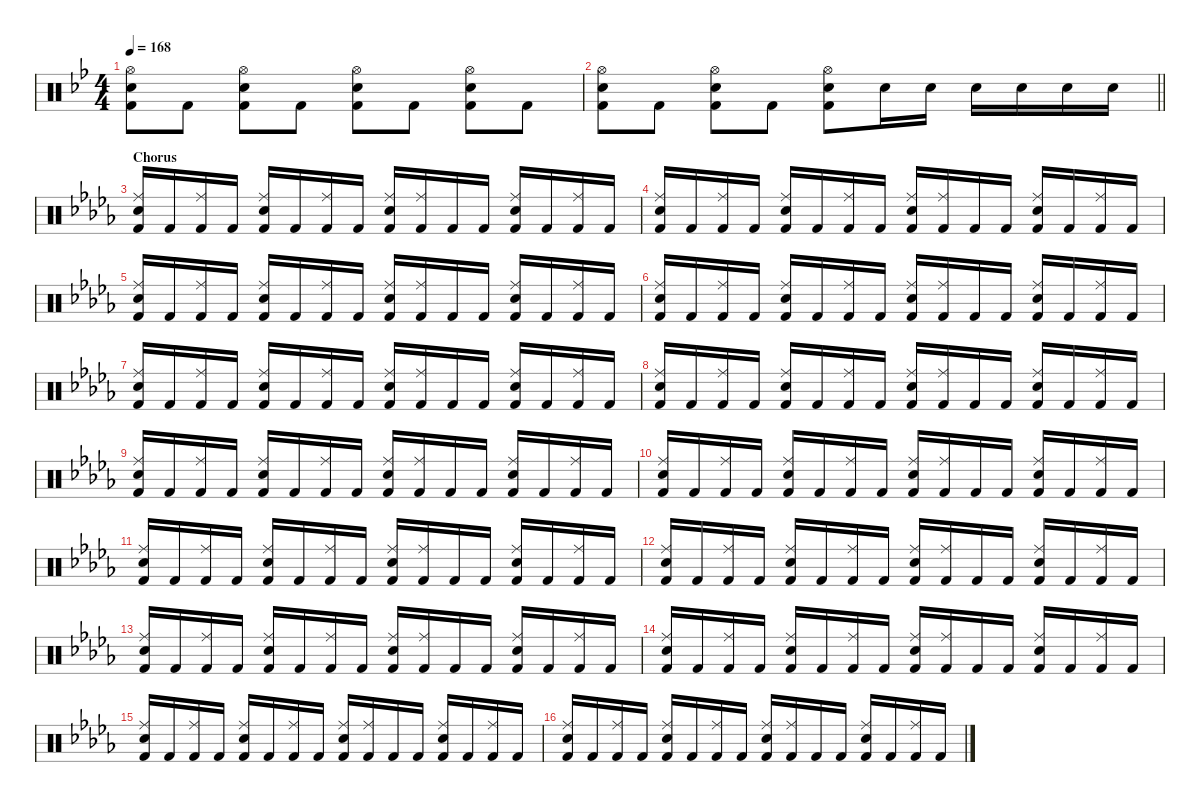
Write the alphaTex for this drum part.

\defaultSystemsLayout 4
\hideDynamics
\bracketExtendMode nobrackets
\singleTrackTrackNamePolicy hidden
\multiTrackTrackNamePolicy hidden
\firstSystemTrackNameMode fullname
\firstSystemTrackNameOrientation horizontal
\otherSystemsTrackNameOrientation horizontal
\track ("Percussion" "drm.") {instrument percussion}
\staff {score}
\articulation defaults
\ts (4 4)
\tempo 168
\clef neutral
\ks bb
("Hi-Hat (open)"{acc forcenatural} "Snare (hit) 2"{acc forcenatural} "Kick (hit) 2"{acc forcenatural}).8{dy f beam Down} "Kick (hit) 2"{acc forcenatural}.8{beam Down} ("Hi-Hat (open)"{acc forcenatural} "Snare (hit) 2"{acc forcenatural} "Kick (hit) 2"{acc forcenatural}).8{beam Down} "Kick (hit) 2"{acc forcenatural}.8{beam Down} ("Hi-Hat (open)"{acc forcenatural} "Snare (hit) 2"{acc forcenatural} "Kick (hit) 2"{acc forcenatural}).8{beam Down} "Kick (hit) 2"{acc forcenatural}.8{beam Down} ("Hi-Hat (open)"{acc forcenatural} "Snare (hit) 2"{acc forcenatural} "Kick (hit) 2"{acc forcenatural}).8{beam Down} "Kick (hit) 2"{acc forcenatural}.8{beam Down} |
\barLineRight lightlight
("Hi-Hat (open)"{acc forcenatural} "Snare (hit) 2"{acc forcenatural} "Kick (hit) 2"{acc forcenatural}).8{beam Down} "Kick (hit) 2"{acc forcenatural}.8{beam Down} ("Hi-Hat (open)"{acc forcenatural} "Snare (hit) 2"{acc forcenatural} "Kick (hit) 2"{acc forcenatural}).8{beam Down} "Kick (hit) 2"{acc forcenatural}.8{beam Down} ("Hi-Hat (open)"{acc forcenatural} "Snare (hit) 2"{acc forcenatural} "Kick (hit) 2"{acc forcenatural}).8{beam Down} "Snare (hit) 2"{acc forcenatural}.16{beam Down} "Snare (hit) 2"{acc forcenatural}.16{beam Down} "Snare (hit) 2"{acc forcenatural}.16{beam Down} "Snare (hit) 2"{acc forcenatural}.16{beam Down} "Snare (hit) 2"{acc forcenatural}.16{beam Down} "Snare (hit) 2"{acc forcenatural}.16{beam Down} |
\section ("" "Chorus")
\ks db
("Ride (middle)"{acc forcenatural} "Snare (hit) 2"{acc forcenatural} "Kick (hit) 2"{acc forcenatural}).16{beam Up} "Kick (hit) 2"{acc forcenatural}.16{beam Up} ("Ride (middle)"{acc forcenatural} "Kick (hit) 2"{acc forcenatural}).16{beam Up} "Kick (hit) 2"{acc forcenatural}.16{beam Up} ("Ride (middle)"{acc forcenatural} "Snare (hit) 2"{acc forcenatural} "Kick (hit) 2"{acc forcenatural}).16{beam Up} "Kick (hit) 2"{acc forcenatural}.16{beam Up} ("Ride (middle)"{acc forcenatural} "Kick (hit) 2"{acc forcenatural}).16{beam Up} "Kick (hit) 2"{acc forcenatural}.16{beam Up} ("Ride (middle)"{acc forcenatural} "Snare (hit) 2"{acc forcenatural} "Kick (hit) 2"{acc forcenatural}).16{beam Up} ("Ride (middle)"{acc forcenatural} "Kick (hit) 2"{acc forcenatural}).16{beam Up} "Kick (hit) 2"{acc forcenatural}.16{beam Up} "Kick (hit) 2"{acc forcenatural}.16{beam Up} ("Ride (middle)"{acc forcenatural} "Snare (hit) 2"{acc forcenatural} "Kick (hit) 2"{acc forcenatural}).16{beam Up} "Kick (hit) 2"{acc forcenatural}.16{beam Up} ("Ride (middle)"{acc forcenatural} "Kick (hit) 2"{acc forcenatural}).16{beam Up} "Kick (hit) 2"{acc forcenatural}.16{beam Up} |
("Ride (middle)"{acc forcenatural} "Snare (hit) 2"{acc forcenatural} "Kick (hit) 2"{acc forcenatural}).16{beam Up} "Kick (hit) 2"{acc forcenatural}.16{beam Up} ("Ride (middle)"{acc forcenatural} "Kick (hit) 2"{acc forcenatural}).16{beam Up} "Kick (hit) 2"{acc forcenatural}.16{beam Up} ("Ride (middle)"{acc forcenatural} "Snare (hit) 2"{acc forcenatural} "Kick (hit) 2"{acc forcenatural}).16{beam Up} "Kick (hit) 2"{acc forcenatural}.16{beam Up} ("Ride (middle)"{acc forcenatural} "Kick (hit) 2"{acc forcenatural}).16{beam Up} "Kick (hit) 2"{acc forcenatural}.16{beam Up} ("Ride (middle)"{acc forcenatural} "Snare (hit) 2"{acc forcenatural} "Kick (hit) 2"{acc forcenatural}).16{beam Up} ("Ride (middle)"{acc forcenatural} "Kick (hit) 2"{acc forcenatural}).16{beam Up} "Kick (hit) 2"{acc forcenatural}.16{beam Up} "Kick (hit) 2"{acc forcenatural}.16{beam Up} ("Ride (middle)"{acc forcenatural} "Snare (hit) 2"{acc forcenatural} "Kick (hit) 2"{acc forcenatural}).16{beam Up} "Kick (hit) 2"{acc forcenatural}.16{beam Up} ("Ride (middle)"{acc forcenatural} "Kick (hit) 2"{acc forcenatural}).16{beam Up} "Kick (hit) 2"{acc forcenatural}.16{beam Up} |
("Ride (middle)"{acc forcenatural} "Snare (hit) 2"{acc forcenatural} "Kick (hit) 2"{acc forcenatural}).16{beam Up} "Kick (hit) 2"{acc forcenatural}.16{beam Up} ("Ride (middle)"{acc forcenatural} "Kick (hit) 2"{acc forcenatural}).16{beam Up} "Kick (hit) 2"{acc forcenatural}.16{beam Up} ("Ride (middle)"{acc forcenatural} "Snare (hit) 2"{acc forcenatural} "Kick (hit) 2"{acc forcenatural}).16{beam Up} "Kick (hit) 2"{acc forcenatural}.16{beam Up} ("Ride (middle)"{acc forcenatural} "Kick (hit) 2"{acc forcenatural}).16{beam Up} "Kick (hit) 2"{acc forcenatural}.16{beam Up} ("Ride (middle)"{acc forcenatural} "Snare (hit) 2"{acc forcenatural} "Kick (hit) 2"{acc forcenatural}).16{beam Up} ("Ride (middle)"{acc forcenatural} "Kick (hit) 2"{acc forcenatural}).16{beam Up} "Kick (hit) 2"{acc forcenatural}.16{beam Up} "Kick (hit) 2"{acc forcenatural}.16{beam Up} ("Ride (middle)"{acc forcenatural} "Snare (hit) 2"{acc forcenatural} "Kick (hit) 2"{acc forcenatural}).16{beam Up} "Kick (hit) 2"{acc forcenatural}.16{beam Up} ("Ride (middle)"{acc forcenatural} "Kick (hit) 2"{acc forcenatural}).16{beam Up} "Kick (hit) 2"{acc forcenatural}.16{beam Up} |
("Ride (middle)"{acc forcenatural} "Snare (hit) 2"{acc forcenatural} "Kick (hit) 2"{acc forcenatural}).16{beam Up} "Kick (hit) 2"{acc forcenatural}.16{beam Up} ("Ride (middle)"{acc forcenatural} "Kick (hit) 2"{acc forcenatural}).16{beam Up} "Kick (hit) 2"{acc forcenatural}.16{beam Up} ("Ride (middle)"{acc forcenatural} "Snare (hit) 2"{acc forcenatural} "Kick (hit) 2"{acc forcenatural}).16{beam Up} "Kick (hit) 2"{acc forcenatural}.16{beam Up} ("Ride (middle)"{acc forcenatural} "Kick (hit) 2"{acc forcenatural}).16{beam Up} "Kick (hit) 2"{acc forcenatural}.16{beam Up} ("Ride (middle)"{acc forcenatural} "Snare (hit) 2"{acc forcenatural} "Kick (hit) 2"{acc forcenatural}).16{beam Up} ("Ride (middle)"{acc forcenatural} "Kick (hit) 2"{acc forcenatural}).16{beam Up} "Kick (hit) 2"{acc forcenatural}.16{beam Up} "Kick (hit) 2"{acc forcenatural}.16{beam Up} ("Ride (middle)"{acc forcenatural} "Snare (hit) 2"{acc forcenatural} "Kick (hit) 2"{acc forcenatural}).16{beam Up} "Kick (hit) 2"{acc forcenatural}.16{beam Up} ("Ride (middle)"{acc forcenatural} "Kick (hit) 2"{acc forcenatural}).16{beam Up} "Kick (hit) 2"{acc forcenatural}.16{beam Up} |
("Ride (middle)"{acc forcenatural} "Snare (hit) 2"{acc forcenatural} "Kick (hit) 2"{acc forcenatural}).16{beam Up} "Kick (hit) 2"{acc forcenatural}.16{beam Up} ("Ride (middle)"{acc forcenatural} "Kick (hit) 2"{acc forcenatural}).16{beam Up} "Kick (hit) 2"{acc forcenatural}.16{beam Up} ("Ride (middle)"{acc forcenatural} "Snare (hit) 2"{acc forcenatural} "Kick (hit) 2"{acc forcenatural}).16{beam Up} "Kick (hit) 2"{acc forcenatural}.16{beam Up} ("Ride (middle)"{acc forcenatural} "Kick (hit) 2"{acc forcenatural}).16{beam Up} "Kick (hit) 2"{acc forcenatural}.16{beam Up} ("Ride (middle)"{acc forcenatural} "Snare (hit) 2"{acc forcenatural} "Kick (hit) 2"{acc forcenatural}).16{beam Up} ("Ride (middle)"{acc forcenatural} "Kick (hit) 2"{acc forcenatural}).16{beam Up} "Kick (hit) 2"{acc forcenatural}.16{beam Up} "Kick (hit) 2"{acc forcenatural}.16{beam Up} ("Ride (middle)"{acc forcenatural} "Snare (hit) 2"{acc forcenatural} "Kick (hit) 2"{acc forcenatural}).16{beam Up} "Kick (hit) 2"{acc forcenatural}.16{beam Up} ("Ride (middle)"{acc forcenatural} "Kick (hit) 2"{acc forcenatural}).16{beam Up} "Kick (hit) 2"{acc forcenatural}.16{beam Up} |
("Ride (middle)"{acc forcenatural} "Snare (hit) 2"{acc forcenatural} "Kick (hit) 2"{acc forcenatural}).16{beam Up} "Kick (hit) 2"{acc forcenatural}.16{beam Up} ("Ride (middle)"{acc forcenatural} "Kick (hit) 2"{acc forcenatural}).16{beam Up} "Kick (hit) 2"{acc forcenatural}.16{beam Up} ("Ride (middle)"{acc forcenatural} "Snare (hit) 2"{acc forcenatural} "Kick (hit) 2"{acc forcenatural}).16{beam Up} "Kick (hit) 2"{acc forcenatural}.16{beam Up} ("Ride (middle)"{acc forcenatural} "Kick (hit) 2"{acc forcenatural}).16{beam Up} "Kick (hit) 2"{acc forcenatural}.16{beam Up} ("Ride (middle)"{acc forcenatural} "Snare (hit) 2"{acc forcenatural} "Kick (hit) 2"{acc forcenatural}).16{beam Up} ("Ride (middle)"{acc forcenatural} "Kick (hit) 2"{acc forcenatural}).16{beam Up} "Kick (hit) 2"{acc forcenatural}.16{beam Up} "Kick (hit) 2"{acc forcenatural}.16{beam Up} ("Ride (middle)"{acc forcenatural} "Snare (hit) 2"{acc forcenatural} "Kick (hit) 2"{acc forcenatural}).16{beam Up} "Kick (hit) 2"{acc forcenatural}.16{beam Up} ("Ride (middle)"{acc forcenatural} "Kick (hit) 2"{acc forcenatural}).16{beam Up} "Kick (hit) 2"{acc forcenatural}.16{beam Up} |
("Ride (middle)"{acc forcenatural} "Snare (hit) 2"{acc forcenatural} "Kick (hit) 2"{acc forcenatural}).16{beam Up} "Kick (hit) 2"{acc forcenatural}.16{beam Up} ("Ride (middle)"{acc forcenatural} "Kick (hit) 2"{acc forcenatural}).16{beam Up} "Kick (hit) 2"{acc forcenatural}.16{beam Up} ("Ride (middle)"{acc forcenatural} "Snare (hit) 2"{acc forcenatural} "Kick (hit) 2"{acc forcenatural}).16{beam Up} "Kick (hit) 2"{acc forcenatural}.16{beam Up} ("Ride (middle)"{acc forcenatural} "Kick (hit) 2"{acc forcenatural}).16{beam Up} "Kick (hit) 2"{acc forcenatural}.16{beam Up} ("Ride (middle)"{acc forcenatural} "Snare (hit) 2"{acc forcenatural} "Kick (hit) 2"{acc forcenatural}).16{beam Up} ("Ride (middle)"{acc forcenatural} "Kick (hit) 2"{acc forcenatural}).16{beam Up} "Kick (hit) 2"{acc forcenatural}.16{beam Up} "Kick (hit) 2"{acc forcenatural}.16{beam Up} ("Ride (middle)"{acc forcenatural} "Snare (hit) 2"{acc forcenatural} "Kick (hit) 2"{acc forcenatural}).16{beam Up} "Kick (hit) 2"{acc forcenatural}.16{beam Up} ("Ride (middle)"{acc forcenatural} "Kick (hit) 2"{acc forcenatural}).16{beam Up} "Kick (hit) 2"{acc forcenatural}.16{beam Up} |
("Ride (middle)"{acc forcenatural} "Snare (hit) 2"{acc forcenatural} "Kick (hit) 2"{acc forcenatural}).16{beam Up} "Kick (hit) 2"{acc forcenatural}.16{beam Up} ("Ride (middle)"{acc forcenatural} "Kick (hit) 2"{acc forcenatural}).16{beam Up} "Kick (hit) 2"{acc forcenatural}.16{beam Up} ("Ride (middle)"{acc forcenatural} "Snare (hit) 2"{acc forcenatural} "Kick (hit) 2"{acc forcenatural}).16{beam Up} "Kick (hit) 2"{acc forcenatural}.16{beam Up} ("Ride (middle)"{acc forcenatural} "Kick (hit) 2"{acc forcenatural}).16{beam Up} "Kick (hit) 2"{acc forcenatural}.16{beam Up} ("Ride (middle)"{acc forcenatural} "Snare (hit) 2"{acc forcenatural} "Kick (hit) 2"{acc forcenatural}).16{beam Up} ("Ride (middle)"{acc forcenatural} "Kick (hit) 2"{acc forcenatural}).16{beam Up} "Kick (hit) 2"{acc forcenatural}.16{beam Up} "Kick (hit) 2"{acc forcenatural}.16{beam Up} ("Ride (middle)"{acc forcenatural} "Snare (hit) 2"{acc forcenatural} "Kick (hit) 2"{acc forcenatural}).16{beam Up} "Kick (hit) 2"{acc forcenatural}.16{beam Up} ("Ride (middle)"{acc forcenatural} "Kick (hit) 2"{acc forcenatural}).16{beam Up} "Kick (hit) 2"{acc forcenatural}.16{beam Up} |
("Ride (middle)"{acc forcenatural} "Snare (hit) 2"{acc forcenatural} "Kick (hit) 2"{acc forcenatural}).16{beam Up} "Kick (hit) 2"{acc forcenatural}.16{beam Up} ("Ride (middle)"{acc forcenatural} "Kick (hit) 2"{acc forcenatural}).16{beam Up} "Kick (hit) 2"{acc forcenatural}.16{beam Up} ("Ride (middle)"{acc forcenatural} "Snare (hit) 2"{acc forcenatural} "Kick (hit) 2"{acc forcenatural}).16{beam Up} "Kick (hit) 2"{acc forcenatural}.16{beam Up} ("Ride (middle)"{acc forcenatural} "Kick (hit) 2"{acc forcenatural}).16{beam Up} "Kick (hit) 2"{acc forcenatural}.16{beam Up} ("Ride (middle)"{acc forcenatural} "Snare (hit) 2"{acc forcenatural} "Kick (hit) 2"{acc forcenatural}).16{beam Up} ("Ride (middle)"{acc forcenatural} "Kick (hit) 2"{acc forcenatural}).16{beam Up} "Kick (hit) 2"{acc forcenatural}.16{beam Up} "Kick (hit) 2"{acc forcenatural}.16{beam Up} ("Ride (middle)"{acc forcenatural} "Snare (hit) 2"{acc forcenatural} "Kick (hit) 2"{acc forcenatural}).16{beam Up} "Kick (hit) 2"{acc forcenatural}.16{beam Up} ("Ride (middle)"{acc forcenatural} "Kick (hit) 2"{acc forcenatural}).16{beam Up} "Kick (hit) 2"{acc forcenatural}.16{beam Up} |
("Ride (middle)"{acc forcenatural} "Snare (hit) 2"{acc forcenatural} "Kick (hit) 2"{acc forcenatural}).16{beam Up} "Kick (hit) 2"{acc forcenatural}.16{beam Up} ("Ride (middle)"{acc forcenatural} "Kick (hit) 2"{acc forcenatural}).16{beam Up} "Kick (hit) 2"{acc forcenatural}.16{beam Up} ("Ride (middle)"{acc forcenatural} "Snare (hit) 2"{acc forcenatural} "Kick (hit) 2"{acc forcenatural}).16{beam Up} "Kick (hit) 2"{acc forcenatural}.16{beam Up} ("Ride (middle)"{acc forcenatural} "Kick (hit) 2"{acc forcenatural}).16{beam Up} "Kick (hit) 2"{acc forcenatural}.16{beam Up} ("Ride (middle)"{acc forcenatural} "Snare (hit) 2"{acc forcenatural} "Kick (hit) 2"{acc forcenatural}).16{beam Up} ("Ride (middle)"{acc forcenatural} "Kick (hit) 2"{acc forcenatural}).16{beam Up} "Kick (hit) 2"{acc forcenatural}.16{beam Up} "Kick (hit) 2"{acc forcenatural}.16{beam Up} ("Ride (middle)"{acc forcenatural} "Snare (hit) 2"{acc forcenatural} "Kick (hit) 2"{acc forcenatural}).16{beam Up} "Kick (hit) 2"{acc forcenatural}.16{beam Up} ("Ride (middle)"{acc forcenatural} "Kick (hit) 2"{acc forcenatural}).16{beam Up} "Kick (hit) 2"{acc forcenatural}.16{beam Up} |
("Ride (middle)"{acc forcenatural} "Snare (hit) 2"{acc forcenatural} "Kick (hit) 2"{acc forcenatural}).16{beam Up} "Kick (hit) 2"{acc forcenatural}.16{beam Up} ("Ride (middle)"{acc forcenatural} "Kick (hit) 2"{acc forcenatural}).16{beam Up} "Kick (hit) 2"{acc forcenatural}.16{beam Up} ("Ride (middle)"{acc forcenatural} "Snare (hit) 2"{acc forcenatural} "Kick (hit) 2"{acc forcenatural}).16{beam Up} "Kick (hit) 2"{acc forcenatural}.16{beam Up} ("Ride (middle)"{acc forcenatural} "Kick (hit) 2"{acc forcenatural}).16{beam Up} "Kick (hit) 2"{acc forcenatural}.16{beam Up} ("Ride (middle)"{acc forcenatural} "Snare (hit) 2"{acc forcenatural} "Kick (hit) 2"{acc forcenatural}).16{beam Up} ("Ride (middle)"{acc forcenatural} "Kick (hit) 2"{acc forcenatural}).16{beam Up} "Kick (hit) 2"{acc forcenatural}.16{beam Up} "Kick (hit) 2"{acc forcenatural}.16{beam Up} ("Ride (middle)"{acc forcenatural} "Snare (hit) 2"{acc forcenatural} "Kick (hit) 2"{acc forcenatural}).16{beam Up} "Kick (hit) 2"{acc forcenatural}.16{beam Up} ("Ride (middle)"{acc forcenatural} "Kick (hit) 2"{acc forcenatural}).16{beam Up} "Kick (hit) 2"{acc forcenatural}.16{beam Up} |
("Ride (middle)"{acc forcenatural} "Snare (hit) 2"{acc forcenatural} "Kick (hit) 2"{acc forcenatural}).16{beam Up} "Kick (hit) 2"{acc forcenatural}.16{beam Up} ("Ride (middle)"{acc forcenatural} "Kick (hit) 2"{acc forcenatural}).16{beam Up} "Kick (hit) 2"{acc forcenatural}.16{beam Up} ("Ride (middle)"{acc forcenatural} "Snare (hit) 2"{acc forcenatural} "Kick (hit) 2"{acc forcenatural}).16{beam Up} "Kick (hit) 2"{acc forcenatural}.16{beam Up} ("Ride (middle)"{acc forcenatural} "Kick (hit) 2"{acc forcenatural}).16{beam Up} "Kick (hit) 2"{acc forcenatural}.16{beam Up} ("Ride (middle)"{acc forcenatural} "Snare (hit) 2"{acc forcenatural} "Kick (hit) 2"{acc forcenatural}).16{beam Up} ("Ride (middle)"{acc forcenatural} "Kick (hit) 2"{acc forcenatural}).16{beam Up} "Kick (hit) 2"{acc forcenatural}.16{beam Up} "Kick (hit) 2"{acc forcenatural}.16{beam Up} ("Ride (middle)"{acc forcenatural} "Snare (hit) 2"{acc forcenatural} "Kick (hit) 2"{acc forcenatural}).16{beam Up} "Kick (hit) 2"{acc forcenatural}.16{beam Up} ("Ride (middle)"{acc forcenatural} "Kick (hit) 2"{acc forcenatural}).16{beam Up} "Kick (hit) 2"{acc forcenatural}.16{beam Up} |
("Ride (middle)"{acc forcenatural} "Snare (hit) 2"{acc forcenatural} "Kick (hit) 2"{acc forcenatural}).16{beam Up} "Kick (hit) 2"{acc forcenatural}.16{beam Up} ("Ride (middle)"{acc forcenatural} "Kick (hit) 2"{acc forcenatural}).16{beam Up} "Kick (hit) 2"{acc forcenatural}.16{beam Up} ("Ride (middle)"{acc forcenatural} "Snare (hit) 2"{acc forcenatural} "Kick (hit) 2"{acc forcenatural}).16{beam Up} "Kick (hit) 2"{acc forcenatural}.16{beam Up} ("Ride (middle)"{acc forcenatural} "Kick (hit) 2"{acc forcenatural}).16{beam Up} "Kick (hit) 2"{acc forcenatural}.16{beam Up} ("Ride (middle)"{acc forcenatural} "Snare (hit) 2"{acc forcenatural} "Kick (hit) 2"{acc forcenatural}).16{beam Up} ("Ride (middle)"{acc forcenatural} "Kick (hit) 2"{acc forcenatural}).16{beam Up} "Kick (hit) 2"{acc forcenatural}.16{beam Up} "Kick (hit) 2"{acc forcenatural}.16{beam Up} ("Ride (middle)"{acc forcenatural} "Snare (hit) 2"{acc forcenatural} "Kick (hit) 2"{acc forcenatural}).16{beam Up} "Kick (hit) 2"{acc forcenatural}.16{beam Up} ("Ride (middle)"{acc forcenatural} "Kick (hit) 2"{acc forcenatural}).16{beam Up} "Kick (hit) 2"{acc forcenatural}.16{beam Up} |
("Ride (middle)"{acc forcenatural} "Snare (hit) 2"{acc forcenatural} "Kick (hit) 2"{acc forcenatural}).16{beam Up} "Kick (hit) 2"{acc forcenatural}.16{beam Up} ("Ride (middle)"{acc forcenatural} "Kick (hit) 2"{acc forcenatural}).16{beam Up} "Kick (hit) 2"{acc forcenatural}.16{beam Up} ("Ride (middle)"{acc forcenatural} "Snare (hit) 2"{acc forcenatural} "Kick (hit) 2"{acc forcenatural}).16{beam Up} "Kick (hit) 2"{acc forcenatural}.16{beam Up} ("Ride (middle)"{acc forcenatural} "Kick (hit) 2"{acc forcenatural}).16{beam Up} "Kick (hit) 2"{acc forcenatural}.16{beam Up} ("Ride (middle)"{acc forcenatural} "Snare (hit) 2"{acc forcenatural} "Kick (hit) 2"{acc forcenatural}).16{beam Up} ("Ride (middle)"{acc forcenatural} "Kick (hit) 2"{acc forcenatural}).16{beam Up} "Kick (hit) 2"{acc forcenatural}.16{beam Up} "Kick (hit) 2"{acc forcenatural}.16{beam Up} ("Ride (middle)"{acc forcenatural} "Snare (hit) 2"{acc forcenatural} "Kick (hit) 2"{acc forcenatural}).16{beam Up} "Kick (hit) 2"{acc forcenatural}.16{beam Up} ("Ride (middle)"{acc forcenatural} "Kick (hit) 2"{acc forcenatural}).16{beam Up} "Kick (hit) 2"{acc forcenatural}.16{beam Up}
